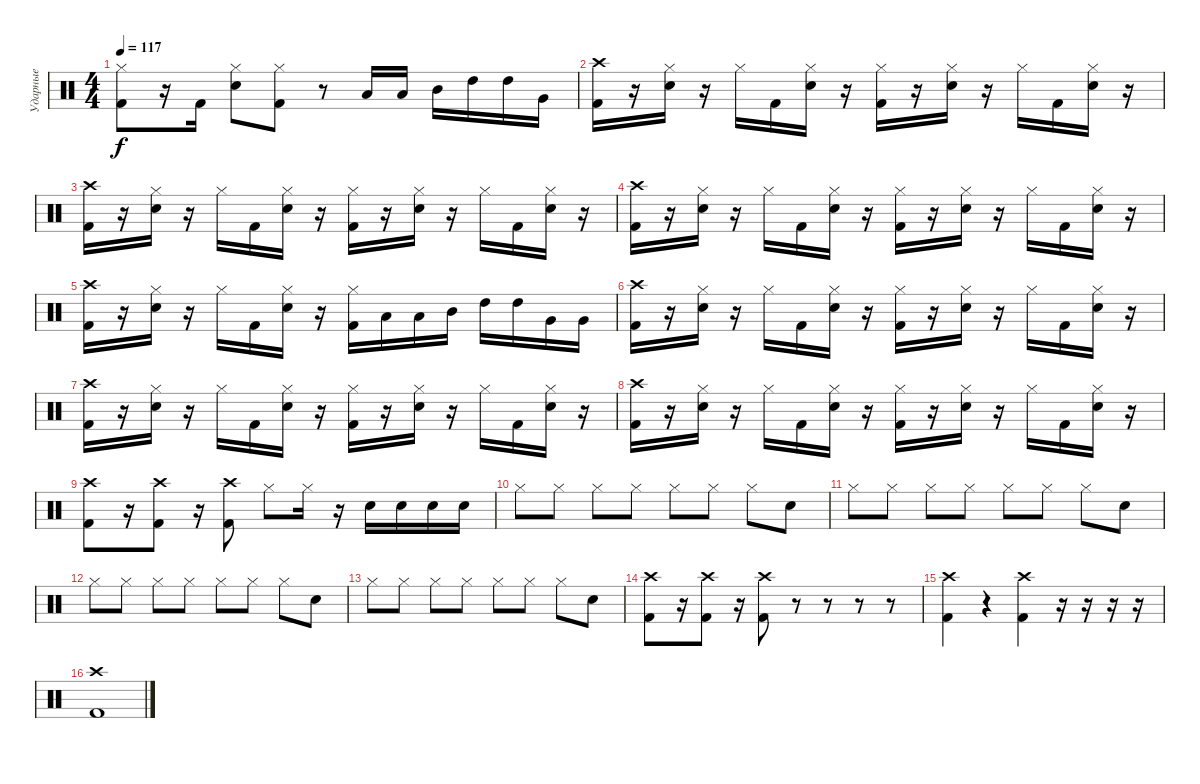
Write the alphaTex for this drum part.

\track ("Ударные" "Ударные") {instrument percussion}
\staff {score}
\articulation defaults
\ts (4 4)
\tempo 117
\clef neutral
\ks c
("Kick (hit) 2" "Hi-Hat (closed)").8{dy f} r.16 "Kick (hit) 2".16 ("Electric Snare (hit)" "Hi-Hat (closed)").8 ("Kick (hit) 2" "Hi-Hat (closed)").8 r.8 "Low Tom (hit)".16 "Low Tom (hit)".16 "Mid Tom (hit)".16 "High Tom (hit)".16 "High Tom (hit)".16 "Very Low Tom (hit)".16 |
("Kick (hit) 2" "Crash high (hit)").16 r.16 ("Electric Snare (hit)" "Hi-Hat (closed)").16 r.16 "Hi-Hat (closed)".16 "Kick (hit) 2".16 ("Electric Snare (hit)" "Hi-Hat (closed)").16 r.16 ("Kick (hit) 2" "Hi-Hat (closed)").16 r.16 ("Electric Snare (hit)" "Hi-Hat (closed)").16 r.16 "Hi-Hat (closed)".16 "Kick (hit) 2".16 ("Electric Snare (hit)" "Hi-Hat (closed)").16 r.16 |
("Kick (hit) 2" "Crash high (hit)").16 r.16 ("Electric Snare (hit)" "Hi-Hat (closed)").16 r.16 "Hi-Hat (closed)".16 "Kick (hit) 2".16 ("Electric Snare (hit)" "Hi-Hat (closed)").16 r.16 ("Kick (hit) 2" "Hi-Hat (closed)").16 r.16 ("Electric Snare (hit)" "Hi-Hat (closed)").16 r.16 "Hi-Hat (closed)".16 "Kick (hit) 2".16 ("Electric Snare (hit)" "Hi-Hat (closed)").16 r.16 |
("Kick (hit) 2" "Crash high (hit)").16 r.16 ("Electric Snare (hit)" "Hi-Hat (closed)").16 r.16 "Hi-Hat (closed)".16 "Kick (hit) 2".16 ("Electric Snare (hit)" "Hi-Hat (closed)").16 r.16 ("Kick (hit) 2" "Hi-Hat (closed)").16 r.16 ("Electric Snare (hit)" "Hi-Hat (closed)").16 r.16 "Hi-Hat (closed)".16 "Kick (hit) 2".16 ("Electric Snare (hit)" "Hi-Hat (closed)").16 r.16 |
("Kick (hit) 2" "Crash high (hit)").16 r.16 ("Electric Snare (hit)" "Hi-Hat (closed)").16 r.16 "Hi-Hat (closed)".16 "Kick (hit) 2".16 ("Electric Snare (hit)" "Hi-Hat (closed)").16 r.16 ("Kick (hit) 2" "Hi-Hat (closed)").16 "Low Tom (hit)".16 "Low Tom (hit)".16 "Mid Tom (hit)".16 "High Tom (hit)".16 "High Tom (hit)".16 "Very Low Tom (hit)".16 "Very Low Tom (hit)".16 |
("Kick (hit) 2" "Crash high (hit)").16 r.16 ("Electric Snare (hit)" "Hi-Hat (closed)").16 r.16 "Hi-Hat (closed)".16 "Kick (hit) 2".16 ("Electric Snare (hit)" "Hi-Hat (closed)").16 r.16 ("Kick (hit) 2" "Hi-Hat (closed)").16 r.16 ("Electric Snare (hit)" "Hi-Hat (closed)").16 r.16 "Hi-Hat (closed)".16 "Kick (hit) 2".16 ("Electric Snare (hit)" "Hi-Hat (closed)").16 r.16 |
("Kick (hit) 2" "Crash high (hit)").16 r.16 ("Electric Snare (hit)" "Hi-Hat (closed)").16 r.16 "Hi-Hat (closed)".16 "Kick (hit) 2".16 ("Electric Snare (hit)" "Hi-Hat (closed)").16 r.16 ("Kick (hit) 2" "Hi-Hat (closed)").16 r.16 ("Electric Snare (hit)" "Hi-Hat (closed)").16 r.16 "Hi-Hat (closed)".16 "Kick (hit) 2".16 ("Electric Snare (hit)" "Hi-Hat (closed)").16 r.16 |
("Kick (hit) 2" "Crash high (hit)").16 r.16 ("Electric Snare (hit)" "Hi-Hat (closed)").16 r.16 "Hi-Hat (closed)".16 "Kick (hit) 2".16 ("Electric Snare (hit)" "Hi-Hat (closed)").16 r.16 ("Kick (hit) 2" "Hi-Hat (closed)").16 r.16 ("Electric Snare (hit)" "Hi-Hat (closed)").16 r.16 "Hi-Hat (closed)".16 "Kick (hit) 2".16 ("Electric Snare (hit)" "Hi-Hat (closed)").16 r.16 |
("Kick (hit) 2" "Crash high (hit)").8 r.16 ("Kick (hit) 2" "Crash high (hit)").8 r.16 ("Kick (hit) 2" "Crash high (hit)").8 "Hi-Hat (closed)".8 "Hi-Hat (closed)".16 r.16 "Electric Snare (hit)".16 "Electric Snare (hit)".16 "Electric Snare (hit)".16 "Electric Snare (hit)".16 |
"Hi-Hat (closed)".8 "Hi-Hat (closed)".8 "Hi-Hat (closed)".8 "Hi-Hat (closed)".8 "Hi-Hat (closed)".8 "Hi-Hat (closed)".8 "Hi-Hat (closed)".8 "Electric Snare (hit)".8 |
"Hi-Hat (closed)".8 "Hi-Hat (closed)".8 "Hi-Hat (closed)".8 "Hi-Hat (closed)".8 "Hi-Hat (closed)".8 "Hi-Hat (closed)".8 "Hi-Hat (closed)".8 "Electric Snare (hit)".8 |
"Hi-Hat (closed)".8 "Hi-Hat (closed)".8 "Hi-Hat (closed)".8 "Hi-Hat (closed)".8 "Hi-Hat (closed)".8 "Hi-Hat (closed)".8 "Hi-Hat (closed)".8 "Electric Snare (hit)".8 |
"Hi-Hat (closed)".8 "Hi-Hat (closed)".8 "Hi-Hat (closed)".8 "Hi-Hat (closed)".8 "Hi-Hat (closed)".8 "Hi-Hat (closed)".8 "Hi-Hat (closed)".8 "Electric Snare (hit)".8 |
("Kick (hit) 2" "Crash high (hit)").8 r.16 ("Kick (hit) 2" "Crash high (hit)").8 r.16 ("Kick (hit) 2" "Crash high (hit)").8 r.8 r.8 r.8 r.8 |
("Kick (hit) 2" "Crash high (hit)").4 r.4 ("Kick (hit) 2" "Crash high (hit)").4 r.16 r.16 r.16 r.16 |
("Kick (hit) 2" "Crash high (hit)").1
